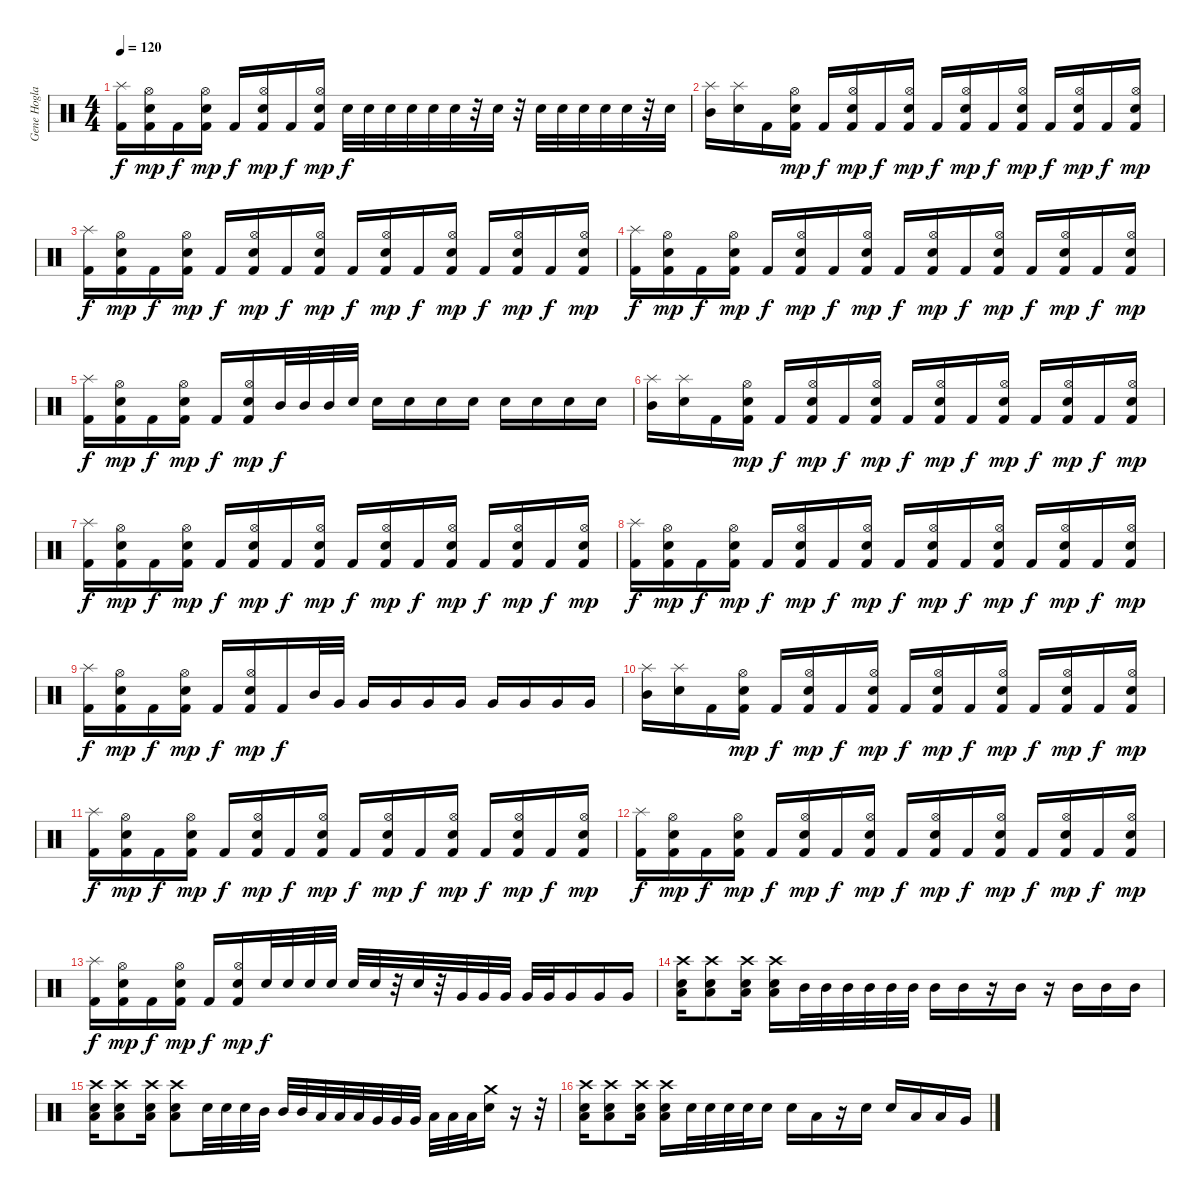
\track ("Gene Hoglan" "Gene Hogla") {instrument percussion}
\staff {score}
\articulation defaults
\ts (4 4)
\tempo 120
\clef neutral
\ks c
("Splash (hit)" "Kick (hit) 2").16{dy f} ("Hi-Hat (open)" "Snare (hit) 2" "Kick (hit) 2").16{dy mp} "Kick (hit) 2".16{dy f} ("Hi-Hat (open)" "Snare (hit) 2" "Kick (hit) 2").16{dy mp} "Kick (hit) 2".16{dy f} ("Hi-Hat (open)" "Snare (hit) 2" "Kick (hit) 2").16{dy mp} "Kick (hit) 2".16{dy f} ("Hi-Hat (open)" "Snare (hit) 2" "Kick (hit) 2").16{dy mp} "Electric Snare (hit)".32{dy f} "Electric Snare (hit)".32 "Electric Snare (hit)".32 "Electric Snare (hit)".32 "Electric Snare (hit)".32 "Electric Snare (hit)".32 r.32 "Electric Snare (hit)".32 r.32 "Electric Snare (hit)".32 "Electric Snare (hit)".32 "Electric Snare (hit)".32 "Electric Snare (hit)".32 "Electric Snare (hit)".32 r.32 "Electric Snare (hit)".32 |
("Splash (hit)" "Mid Tom (hit)").16 ("Electric Snare (hit)" "Splash (hit)").16 "Kick (hit) 2".16 ("Hi-Hat (open)" "Snare (hit) 2" "Kick (hit) 2").16{dy mp} "Kick (hit) 2".16{dy f} ("Hi-Hat (open)" "Snare (hit) 2" "Kick (hit) 2").16{dy mp} "Kick (hit) 2".16{dy f} ("Hi-Hat (open)" "Snare (hit) 2" "Kick (hit) 2").16{dy mp} "Kick (hit) 2".16{dy f} ("Hi-Hat (open)" "Snare (hit) 2" "Kick (hit) 2").16{dy mp} "Kick (hit) 2".16{dy f} ("Hi-Hat (open)" "Snare (hit) 2" "Kick (hit) 2").16{dy mp} "Kick (hit) 2".16{dy f} ("Hi-Hat (open)" "Snare (hit) 2" "Kick (hit) 2").16{dy mp} "Kick (hit) 2".16{dy f} ("Hi-Hat (open)" "Snare (hit) 2" "Kick (hit) 2").16{dy mp} |
("Splash (hit)" "Kick (hit) 2").16{dy f} ("Hi-Hat (open)" "Snare (hit) 2" "Kick (hit) 2").16{dy mp} "Kick (hit) 2".16{dy f} ("Hi-Hat (open)" "Snare (hit) 2" "Kick (hit) 2").16{dy mp} "Kick (hit) 2".16{dy f} ("Hi-Hat (open)" "Snare (hit) 2" "Kick (hit) 2").16{dy mp} "Kick (hit) 2".16{dy f} ("Hi-Hat (open)" "Snare (hit) 2" "Kick (hit) 2").16{dy mp} "Kick (hit) 2".16{dy f} ("Hi-Hat (open)" "Snare (hit) 2" "Kick (hit) 2").16{dy mp} "Kick (hit) 2".16{dy f} ("Hi-Hat (open)" "Snare (hit) 2" "Kick (hit) 2").16{dy mp} "Kick (hit) 2".16{dy f} ("Hi-Hat (open)" "Snare (hit) 2" "Kick (hit) 2").16{dy mp} "Kick (hit) 2".16{dy f} ("Hi-Hat (open)" "Snare (hit) 2" "Kick (hit) 2").16{dy mp} |
("Splash (hit)" "Kick (hit) 2").16{dy f} ("Hi-Hat (open)" "Snare (hit) 2" "Kick (hit) 2").16{dy mp} "Kick (hit) 2".16{dy f} ("Hi-Hat (open)" "Snare (hit) 2" "Kick (hit) 2").16{dy mp} "Kick (hit) 2".16{dy f} ("Hi-Hat (open)" "Snare (hit) 2" "Kick (hit) 2").16{dy mp} "Kick (hit) 2".16{dy f} ("Hi-Hat (open)" "Snare (hit) 2" "Kick (hit) 2").16{dy mp} "Kick (hit) 2".16{dy f} ("Hi-Hat (open)" "Snare (hit) 2" "Kick (hit) 2").16{dy mp} "Kick (hit) 2".16{dy f} ("Hi-Hat (open)" "Snare (hit) 2" "Kick (hit) 2").16{dy mp} "Kick (hit) 2".16{dy f} ("Hi-Hat (open)" "Snare (hit) 2" "Kick (hit) 2").16{dy mp} "Kick (hit) 2".16{dy f} ("Hi-Hat (open)" "Snare (hit) 2" "Kick (hit) 2").16{dy mp} |
("Splash (hit)" "Kick (hit) 2").16{dy f} ("Hi-Hat (open)" "Snare (hit) 2" "Kick (hit) 2").16{dy mp} "Kick (hit) 2".16{dy f} ("Hi-Hat (open)" "Snare (hit) 2" "Kick (hit) 2").16{dy mp} "Kick (hit) 2".16{dy f} ("Hi-Hat (open)" "Snare (hit) 2" "Kick (hit) 2").16{dy mp} "Mid Tom (hit)".32{dy f} "Mid Tom (hit)".32 "Mid Tom (hit)".32 "Electric Snare (hit)".32 "Electric Snare (hit)".16 "Electric Snare (hit)".16 "Electric Snare (hit)".16 "Electric Snare (hit)".16 "Electric Snare (hit)".16 "Electric Snare (hit)".16 "Electric Snare (hit)".16 "Electric Snare (hit)".16 |
("Splash (hit)" "Mid Tom (hit)").16 ("Electric Snare (hit)" "Splash (hit)").16 "Kick (hit) 2".16 ("Hi-Hat (open)" "Snare (hit) 2" "Kick (hit) 2").16{dy mp} "Kick (hit) 2".16{dy f} ("Hi-Hat (open)" "Snare (hit) 2" "Kick (hit) 2").16{dy mp} "Kick (hit) 2".16{dy f} ("Hi-Hat (open)" "Snare (hit) 2" "Kick (hit) 2").16{dy mp} "Kick (hit) 2".16{dy f} ("Hi-Hat (open)" "Snare (hit) 2" "Kick (hit) 2").16{dy mp} "Kick (hit) 2".16{dy f} ("Hi-Hat (open)" "Snare (hit) 2" "Kick (hit) 2").16{dy mp} "Kick (hit) 2".16{dy f} ("Hi-Hat (open)" "Snare (hit) 2" "Kick (hit) 2").16{dy mp} "Kick (hit) 2".16{dy f} ("Hi-Hat (open)" "Snare (hit) 2" "Kick (hit) 2").16{dy mp} |
("Splash (hit)" "Kick (hit) 2").16{dy f} ("Hi-Hat (open)" "Snare (hit) 2" "Kick (hit) 2").16{dy mp} "Kick (hit) 2".16{dy f} ("Hi-Hat (open)" "Snare (hit) 2" "Kick (hit) 2").16{dy mp} "Kick (hit) 2".16{dy f} ("Hi-Hat (open)" "Snare (hit) 2" "Kick (hit) 2").16{dy mp} "Kick (hit) 2".16{dy f} ("Hi-Hat (open)" "Snare (hit) 2" "Kick (hit) 2").16{dy mp} "Kick (hit) 2".16{dy f} ("Hi-Hat (open)" "Snare (hit) 2" "Kick (hit) 2").16{dy mp} "Kick (hit) 2".16{dy f} ("Hi-Hat (open)" "Snare (hit) 2" "Kick (hit) 2").16{dy mp} "Kick (hit) 2".16{dy f} ("Hi-Hat (open)" "Snare (hit) 2" "Kick (hit) 2").16{dy mp} "Kick (hit) 2".16{dy f} ("Hi-Hat (open)" "Snare (hit) 2" "Kick (hit) 2").16{dy mp} |
("Splash (hit)" "Kick (hit) 2").16{dy f} ("Hi-Hat (open)" "Snare (hit) 2" "Kick (hit) 2").16{dy mp} "Kick (hit) 2".16{dy f} ("Hi-Hat (open)" "Snare (hit) 2" "Kick (hit) 2").16{dy mp} "Kick (hit) 2".16{dy f} ("Hi-Hat (open)" "Snare (hit) 2" "Kick (hit) 2").16{dy mp} "Kick (hit) 2".16{dy f} ("Hi-Hat (open)" "Snare (hit) 2" "Kick (hit) 2").16{dy mp} "Kick (hit) 2".16{dy f} ("Hi-Hat (open)" "Snare (hit) 2" "Kick (hit) 2").16{dy mp} "Kick (hit) 2".16{dy f} ("Hi-Hat (open)" "Snare (hit) 2" "Kick (hit) 2").16{dy mp} "Kick (hit) 2".16{dy f} ("Hi-Hat (open)" "Snare (hit) 2" "Kick (hit) 2").16{dy mp} "Kick (hit) 2".16{dy f} ("Hi-Hat (open)" "Snare (hit) 2" "Kick (hit) 2").16{dy mp} |
("Splash (hit)" "Kick (hit) 2").16{dy f} ("Hi-Hat (open)" "Snare (hit) 2" "Kick (hit) 2").16{dy mp} "Kick (hit) 2".16{dy f} ("Hi-Hat (open)" "Snare (hit) 2" "Kick (hit) 2").16{dy mp} "Kick (hit) 2".16{dy f} ("Hi-Hat (open)" "Snare (hit) 2" "Kick (hit) 2").16{dy mp} "Kick (hit) 2".16{dy f} "Mid Tom (hit)".32 "Very Low Tom (hit)".32 "Very Low Tom (hit)".16 "Very Low Tom (hit)".16 "Very Low Tom (hit)".16 "Very Low Tom (hit)".16 "Very Low Tom (hit)".16 "Very Low Tom (hit)".16 "Very Low Tom (hit)".16 "Very Low Tom (hit)".16 |
("Splash (hit)" "Mid Tom (hit)").16 ("Electric Snare (hit)" "Splash (hit)").16 "Kick (hit) 2".16 ("Hi-Hat (open)" "Snare (hit) 2" "Kick (hit) 2").16{dy mp} "Kick (hit) 2".16{dy f} ("Hi-Hat (open)" "Snare (hit) 2" "Kick (hit) 2").16{dy mp} "Kick (hit) 2".16{dy f} ("Hi-Hat (open)" "Snare (hit) 2" "Kick (hit) 2").16{dy mp} "Kick (hit) 2".16{dy f} ("Hi-Hat (open)" "Snare (hit) 2" "Kick (hit) 2").16{dy mp} "Kick (hit) 2".16{dy f} ("Hi-Hat (open)" "Snare (hit) 2" "Kick (hit) 2").16{dy mp} "Kick (hit) 2".16{dy f} ("Hi-Hat (open)" "Snare (hit) 2" "Kick (hit) 2").16{dy mp} "Kick (hit) 2".16{dy f} ("Hi-Hat (open)" "Snare (hit) 2" "Kick (hit) 2").16{dy mp} |
("Splash (hit)" "Kick (hit) 2").16{dy f} ("Hi-Hat (open)" "Snare (hit) 2" "Kick (hit) 2").16{dy mp} "Kick (hit) 2".16{dy f} ("Hi-Hat (open)" "Snare (hit) 2" "Kick (hit) 2").16{dy mp} "Kick (hit) 2".16{dy f} ("Hi-Hat (open)" "Snare (hit) 2" "Kick (hit) 2").16{dy mp} "Kick (hit) 2".16{dy f} ("Hi-Hat (open)" "Snare (hit) 2" "Kick (hit) 2").16{dy mp} "Kick (hit) 2".16{dy f} ("Hi-Hat (open)" "Snare (hit) 2" "Kick (hit) 2").16{dy mp} "Kick (hit) 2".16{dy f} ("Hi-Hat (open)" "Snare (hit) 2" "Kick (hit) 2").16{dy mp} "Kick (hit) 2".16{dy f} ("Hi-Hat (open)" "Snare (hit) 2" "Kick (hit) 2").16{dy mp} "Kick (hit) 2".16{dy f} ("Hi-Hat (open)" "Snare (hit) 2" "Kick (hit) 2").16{dy mp} |
("Splash (hit)" "Kick (hit) 2").16{dy f} ("Hi-Hat (open)" "Snare (hit) 2" "Kick (hit) 2").16{dy mp} "Kick (hit) 2".16{dy f} ("Hi-Hat (open)" "Snare (hit) 2" "Kick (hit) 2").16{dy mp} "Kick (hit) 2".16{dy f} ("Hi-Hat (open)" "Snare (hit) 2" "Kick (hit) 2").16{dy mp} "Kick (hit) 2".16{dy f} ("Hi-Hat (open)" "Snare (hit) 2" "Kick (hit) 2").16{dy mp} "Kick (hit) 2".16{dy f} ("Hi-Hat (open)" "Snare (hit) 2" "Kick (hit) 2").16{dy mp} "Kick (hit) 2".16{dy f} ("Hi-Hat (open)" "Snare (hit) 2" "Kick (hit) 2").16{dy mp} "Kick (hit) 2".16{dy f} ("Hi-Hat (open)" "Snare (hit) 2" "Kick (hit) 2").16{dy mp} "Kick (hit) 2".16{dy f} ("Hi-Hat (open)" "Snare (hit) 2" "Kick (hit) 2").16{dy mp} |
("Splash (hit)" "Kick (hit) 2").16{dy f} ("Hi-Hat (open)" "Snare (hit) 2" "Kick (hit) 2").16{dy mp} "Kick (hit) 2".16{dy f} ("Hi-Hat (open)" "Snare (hit) 2" "Kick (hit) 2").16{dy mp} "Kick (hit) 2".16{dy f} ("Hi-Hat (open)" "Snare (hit) 2" "Kick (hit) 2").16{dy mp} "Electric Snare (hit)".32{dy f} "Electric Snare (hit)".32 "Electric Snare (hit)".32 "Electric Snare (hit)".32 "Electric Snare (hit)".32 "Electric Snare (hit)".32 r.32 "Electric Snare (hit)".32 r.32 "Very Low Tom (hit)".32 "Very Low Tom (hit)".32 "Very Low Tom (hit)".32 "Very Low Tom (hit)".32 "Very Low Tom (hit)".32 "Very Low Tom (hit)".16 "Very Low Tom (hit)".16 "Very Low Tom (hit)".16 |
("Low Floor Tom (hit)" "Electric Snare (hit)" "Crash high (hit)").16 ("Low Floor Tom (hit)" "Electric Snare (hit)" "Crash high (hit)").8 ("Low Floor Tom (hit)" "Electric Snare (hit)" "Crash high (hit)").16 ("Low Floor Tom (hit)" "Electric Snare (hit)" "Crash high (hit)").16 "Mid Tom (hit)".32 "Mid Tom (hit)".32 "Mid Tom (hit)".32 "Mid Tom (hit)".32 "Mid Tom (hit)".32 "Mid Tom (hit)".32 "Mid Tom (hit)".16 "Mid Tom (hit)".16 r.16 "Mid Tom (hit)".16 r.16 "Mid Tom (hit)".16 "Mid Tom (hit)".16 "Mid Tom (hit)".16 |
("Low Floor Tom (hit)" "Electric Snare (hit)" "Crash high (hit)").16 ("Low Floor Tom (hit)" "Electric Snare (hit)" "Crash high (hit)").8 ("Low Floor Tom (hit)" "Electric Snare (hit)" "Crash high (hit)").16 ("Low Floor Tom (hit)" "Electric Snare (hit)" "Crash high (hit)").8 "Electric Snare (hit)".32 "Electric Snare (hit)".32 "Electric Snare (hit)".32 "Mid Tom (hit)".32 "Mid Tom (hit)".32 "Mid Tom (hit)".32 "Low Tom (hit)".32 "Low Tom (hit)".32 "Low Tom (hit)".32 "Very Low Tom (hit)".32 "Very Low Tom (hit)".32 "Very Low Tom (hit)".32 "Low Floor Tom (hit)".32 "Low Floor Tom (hit)".32 "Low Floor Tom (hit)".32 ("Electric Snare (hit)" "Crash medium (hit)").16 r.16 r.32 |
("Low Floor Tom (hit)" "Electric Snare (hit)" "Crash high (hit)").16 ("Low Floor Tom (hit)" "Electric Snare (hit)" "Crash high (hit)").8 ("Low Floor Tom (hit)" "Electric Snare (hit)" "Crash high (hit)").16 ("Low Floor Tom (hit)" "Electric Snare (hit)" "Crash high (hit)").16 "Electric Snare (hit)".32 "Electric Snare (hit)".32 "Electric Snare (hit)".32 "Electric Snare (hit)".32 "Electric Snare (hit)".16 "Electric Snare (hit)".16 "Low Tom (hit)".16 r.16 "Electric Snare (hit)".16 "Electric Snare (hit)".16 "Low Tom (hit)".16 "Low Tom (hit)".16 "Very Low Tom (hit)".16
